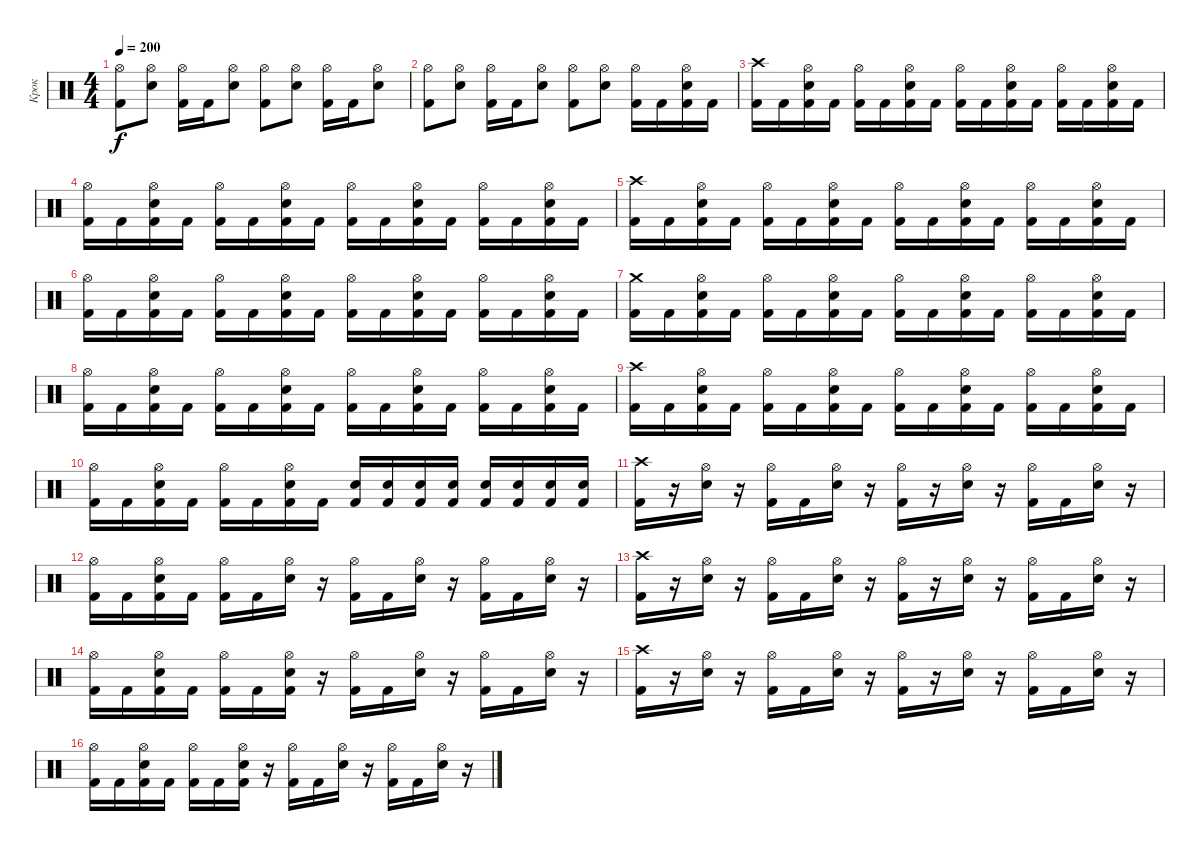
\track ("Крок" "Крок") {instrument percussion}
\staff {score}
\articulation defaults
\ts (4 4)
\tempo 200
\clef neutral
\ks c
("Hi-Hat (open)" "Kick (hit) 2").8{dy f} ("Hi-Hat (open)" "Electric Snare (hit)").8 ("Hi-Hat (open)" "Kick (hit) 2").16 "Kick (hit) 2".16 ("Hi-Hat (open)" "Electric Snare (hit)").8 ("Hi-Hat (open)" "Kick (hit) 2").8 ("Hi-Hat (open)" "Electric Snare (hit)").8 ("Hi-Hat (open)" "Kick (hit) 2").16 "Kick (hit) 2".16 ("Hi-Hat (open)" "Electric Snare (hit)").8 |
("Hi-Hat (open)" "Kick (hit) 2").8 ("Hi-Hat (open)" "Electric Snare (hit)").8 ("Hi-Hat (open)" "Kick (hit) 2").16 "Kick (hit) 2".16 ("Hi-Hat (open)" "Electric Snare (hit)").8 ("Hi-Hat (open)" "Kick (hit) 2").8 ("Hi-Hat (open)" "Electric Snare (hit)").8 ("Hi-Hat (open)" "Kick (hit) 2").16 "Kick (hit) 2".16 ("Hi-Hat (open)" "Kick (hit) 2" "Electric Snare (hit)").16 "Kick (hit) 2".16 |
("Kick (hit) 2" "Crash high (hit)").16 "Kick (hit) 2".16 ("Kick (hit) 2" "Electric Snare (hit)" "Hi-Hat (open)").16 "Kick (hit) 2".16 ("Kick (hit) 2" "Hi-Hat (open)").16 "Kick (hit) 2".16 ("Kick (hit) 2" "Electric Snare (hit)" "Hi-Hat (open)").16 "Kick (hit) 2".16 ("Kick (hit) 2" "Hi-Hat (open)").16 "Kick (hit) 2".16 ("Kick (hit) 2" "Electric Snare (hit)" "Hi-Hat (open)").16 "Kick (hit) 2".16 ("Kick (hit) 2" "Hi-Hat (open)").16 "Kick (hit) 2".16 ("Kick (hit) 2" "Electric Snare (hit)" "Hi-Hat (open)").16 "Kick (hit) 2".16 |
("Kick (hit) 2" "Hi-Hat (open)").16 "Kick (hit) 2".16 ("Kick (hit) 2" "Electric Snare (hit)" "Hi-Hat (open)").16 "Kick (hit) 2".16 ("Kick (hit) 2" "Hi-Hat (open)").16 "Kick (hit) 2".16 ("Kick (hit) 2" "Electric Snare (hit)" "Hi-Hat (open)").16 "Kick (hit) 2".16 ("Kick (hit) 2" "Hi-Hat (open)").16 "Kick (hit) 2".16 ("Kick (hit) 2" "Electric Snare (hit)" "Hi-Hat (open)").16 "Kick (hit) 2".16 ("Kick (hit) 2" "Hi-Hat (open)").16 "Kick (hit) 2".16 ("Kick (hit) 2" "Electric Snare (hit)" "Hi-Hat (open)").16 "Kick (hit) 2".16 |
("Kick (hit) 2" "Crash high (hit)").16 "Kick (hit) 2".16 ("Kick (hit) 2" "Electric Snare (hit)" "Hi-Hat (open)").16 "Kick (hit) 2".16 ("Kick (hit) 2" "Hi-Hat (open)").16 "Kick (hit) 2".16 ("Kick (hit) 2" "Electric Snare (hit)" "Hi-Hat (open)").16 "Kick (hit) 2".16 ("Kick (hit) 2" "Hi-Hat (open)").16 "Kick (hit) 2".16 ("Kick (hit) 2" "Electric Snare (hit)" "Hi-Hat (open)").16 "Kick (hit) 2".16 ("Kick (hit) 2" "Hi-Hat (open)").16 "Kick (hit) 2".16 ("Kick (hit) 2" "Electric Snare (hit)" "Hi-Hat (open)").16 "Kick (hit) 2".16 |
("Kick (hit) 2" "Hi-Hat (open)").16 "Kick (hit) 2".16 ("Kick (hit) 2" "Electric Snare (hit)" "Hi-Hat (open)").16 "Kick (hit) 2".16 ("Kick (hit) 2" "Hi-Hat (open)").16 "Kick (hit) 2".16 ("Kick (hit) 2" "Electric Snare (hit)" "Hi-Hat (open)").16 "Kick (hit) 2".16 ("Kick (hit) 2" "Hi-Hat (open)").16 "Kick (hit) 2".16 ("Kick (hit) 2" "Electric Snare (hit)" "Hi-Hat (open)").16 "Kick (hit) 2".16 ("Kick (hit) 2" "Hi-Hat (open)").16 "Kick (hit) 2".16 ("Kick (hit) 2" "Electric Snare (hit)" "Hi-Hat (open)").16 "Kick (hit) 2".16 |
("Kick (hit) 2" "Crash medium (hit)").16 "Kick (hit) 2".16 ("Kick (hit) 2" "Electric Snare (hit)" "Hi-Hat (open)").16 "Kick (hit) 2".16 ("Kick (hit) 2" "Hi-Hat (open)").16 "Kick (hit) 2".16 ("Kick (hit) 2" "Electric Snare (hit)" "Hi-Hat (open)").16 "Kick (hit) 2".16 ("Kick (hit) 2" "Hi-Hat (open)").16 "Kick (hit) 2".16 ("Kick (hit) 2" "Electric Snare (hit)" "Hi-Hat (open)").16 "Kick (hit) 2".16 ("Kick (hit) 2" "Hi-Hat (open)").16 "Kick (hit) 2".16 ("Kick (hit) 2" "Electric Snare (hit)" "Hi-Hat (open)").16 "Kick (hit) 2".16 |
("Kick (hit) 2" "Hi-Hat (open)").16 "Kick (hit) 2".16 ("Kick (hit) 2" "Electric Snare (hit)" "Hi-Hat (open)").16 "Kick (hit) 2".16 ("Kick (hit) 2" "Hi-Hat (open)").16 "Kick (hit) 2".16 ("Kick (hit) 2" "Electric Snare (hit)" "Hi-Hat (open)").16 "Kick (hit) 2".16 ("Kick (hit) 2" "Hi-Hat (open)").16 "Kick (hit) 2".16 ("Kick (hit) 2" "Electric Snare (hit)" "Hi-Hat (open)").16 "Kick (hit) 2".16 ("Kick (hit) 2" "Hi-Hat (open)").16 "Kick (hit) 2".16 ("Kick (hit) 2" "Electric Snare (hit)" "Hi-Hat (open)").16 "Kick (hit) 2".16 |
("Kick (hit) 2" "Crash high (hit)").16 "Kick (hit) 2".16 ("Kick (hit) 2" "Electric Snare (hit)" "Hi-Hat (open)").16 "Kick (hit) 2".16 ("Kick (hit) 2" "Hi-Hat (open)").16 "Kick (hit) 2".16 ("Kick (hit) 2" "Electric Snare (hit)" "Hi-Hat (open)").16 "Kick (hit) 2".16 ("Kick (hit) 2" "Hi-Hat (open)").16 "Kick (hit) 2".16 ("Kick (hit) 2" "Electric Snare (hit)" "Hi-Hat (open)").16 "Kick (hit) 2".16 ("Kick (hit) 2" "Hi-Hat (open)").16 "Kick (hit) 2".16 ("Kick (hit) 2" "Electric Snare (hit)" "Hi-Hat (open)").16 "Kick (hit) 2".16 |
("Kick (hit) 2" "Hi-Hat (open)").16 "Kick (hit) 2".16 ("Kick (hit) 2" "Electric Snare (hit)" "Hi-Hat (open)").16 "Kick (hit) 2".16 ("Kick (hit) 2" "Hi-Hat (open)").16 "Kick (hit) 2".16 ("Kick (hit) 2" "Electric Snare (hit)" "Hi-Hat (open)").16 "Kick (hit) 2".16 ("Kick (hit) 2" "Electric Snare (hit)").16 ("Kick (hit) 2" "Electric Snare (hit)").16 ("Kick (hit) 2" "Electric Snare (hit)").16 ("Kick (hit) 2" "Electric Snare (hit)").16 ("Kick (hit) 2" "Electric Snare (hit)").16 ("Kick (hit) 2" "Electric Snare (hit)").16 ("Kick (hit) 2" "Electric Snare (hit)").16 ("Kick (hit) 2" "Electric Snare (hit)").16 |
("Kick (hit) 2" "Crash high (hit)").16 r.16 ("Electric Snare (hit)" "Hi-Hat (open)").16 r.16 ("Kick (hit) 2" "Hi-Hat (open)").16 "Kick (hit) 2".16 ("Electric Snare (hit)" "Hi-Hat (open)").16 r.16 ("Kick (hit) 2" "Hi-Hat (open)").16 r.16 ("Electric Snare (hit)" "Hi-Hat (open)").16 r.16 ("Kick (hit) 2" "Hi-Hat (open)").16 "Kick (hit) 2".16 ("Electric Snare (hit)" "Hi-Hat (open)").16 r.16 |
("Kick (hit) 2" "Hi-Hat (open)").16 "Kick (hit) 2".16 ("Kick (hit) 2" "Electric Snare (hit)" "Hi-Hat (open)").16 "Kick (hit) 2".16 ("Kick (hit) 2" "Hi-Hat (open)").16 "Kick (hit) 2".16 ("Electric Snare (hit)" "Hi-Hat (open)").16 r.16 ("Kick (hit) 2" "Hi-Hat (open)").16 "Kick (hit) 2".16 ("Electric Snare (hit)" "Hi-Hat (open)").16 r.16 ("Kick (hit) 2" "Hi-Hat (open)").16 "Kick (hit) 2".16 ("Electric Snare (hit)" "Hi-Hat (open)").16 r.16 |
("Kick (hit) 2" "Crash high (hit)").16 r.16 ("Electric Snare (hit)" "Hi-Hat (open)").16 r.16 ("Kick (hit) 2" "Hi-Hat (open)").16 "Kick (hit) 2".16 ("Electric Snare (hit)" "Hi-Hat (open)").16 r.16 ("Kick (hit) 2" "Hi-Hat (open)").16 r.16 ("Electric Snare (hit)" "Hi-Hat (open)").16 r.16 ("Kick (hit) 2" "Hi-Hat (open)").16 "Kick (hit) 2".16 ("Electric Snare (hit)" "Hi-Hat (open)").16 r.16 |
("Kick (hit) 2" "Hi-Hat (open)").16 "Kick (hit) 2".16 ("Kick (hit) 2" "Electric Snare (hit)" "Hi-Hat (open)").16 "Kick (hit) 2".16 ("Kick (hit) 2" "Hi-Hat (open)").16 "Kick (hit) 2".16 ("Kick (hit) 2" "Electric Snare (hit)" "Hi-Hat (open)").16 r.16 ("Kick (hit) 2" "Hi-Hat (open)").16 "Kick (hit) 2".16 ("Electric Snare (hit)" "Hi-Hat (open)").16 r.16 ("Kick (hit) 2" "Hi-Hat (open)").16 "Kick (hit) 2".16 ("Electric Snare (hit)" "Hi-Hat (open)").16 r.16 |
("Kick (hit) 2" "Crash high (hit)").16 r.16 ("Electric Snare (hit)" "Hi-Hat (open)").16 r.16 ("Kick (hit) 2" "Hi-Hat (open)").16 "Kick (hit) 2".16 ("Electric Snare (hit)" "Hi-Hat (open)").16 r.16 ("Kick (hit) 2" "Hi-Hat (open)").16 r.16 ("Electric Snare (hit)" "Hi-Hat (open)").16 r.16 ("Kick (hit) 2" "Hi-Hat (open)").16 "Kick (hit) 2".16 ("Electric Snare (hit)" "Hi-Hat (open)").16 r.16 |
("Kick (hit) 2" "Hi-Hat (open)").16 "Kick (hit) 2".16 ("Kick (hit) 2" "Electric Snare (hit)" "Hi-Hat (open)").16 "Kick (hit) 2".16 ("Kick (hit) 2" "Hi-Hat (open)").16 "Kick (hit) 2".16 ("Kick (hit) 2" "Electric Snare (hit)" "Hi-Hat (open)").16 r.16 ("Kick (hit) 2" "Hi-Hat (open)").16 "Kick (hit) 2".16 ("Electric Snare (hit)" "Hi-Hat (open)").16 r.16 ("Kick (hit) 2" "Hi-Hat (open)").16 "Kick (hit) 2".16 ("Electric Snare (hit)" "Hi-Hat (open)").16 r.16
